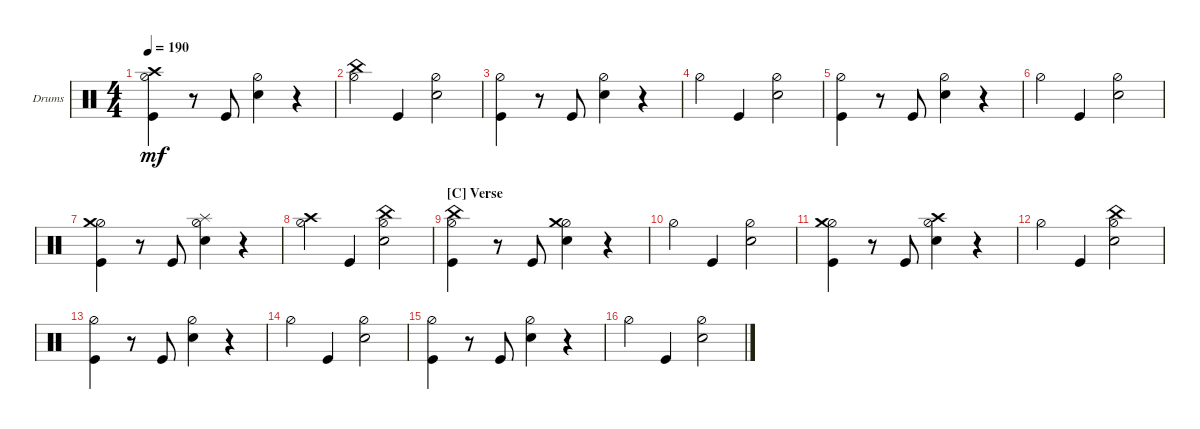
\defaultSystemsLayout 4
\bracketExtendMode groupsimilarinstruments
\firstSystemTrackNameOrientation horizontal
\otherSystemsTrackNameOrientation horizontal
\track ("Drumkit" "Drums") {instrument percussion}
\staff {score}
\articulation defaults
\ts (4 4)
\tempo 190
\clef neutral
\ks c
("Hi-Hat (half)" "Kick (hit)" "Crash high (hit)").4{dy mf} r.8 "Kick (hit)".8 ("Hi-Hat (half)" "Snare (hit) 2").4 r.4 |
("Hi-Hat (half)" "China (hit)").4 "Kick (hit)".4 ("Snare (hit) 2" "Hi-Hat (half)").2 |
("Hi-Hat (half)" "Kick (hit)").4 r.8 "Kick (hit)".8 ("Hi-Hat (half)" "Snare (hit) 2").4 r.4 |
"Hi-Hat (half)".4 "Kick (hit)".4 ("Snare (hit) 2" "Hi-Hat (half)").2 |
("Hi-Hat (half)" "Kick (hit)").4 r.8 "Kick (hit)".8 ("Hi-Hat (half)" "Snare (hit) 2").4 r.4 |
"Hi-Hat (half)".4 "Kick (hit)".4 ("Snare (hit) 2" "Hi-Hat (half)").2 |
("Hi-Hat (half)" "Kick (hit)" "Crash medium (hit)").4 r.8 "Kick (hit)".8 ("Hi-Hat (half)" "Snare (hit) 2" "Splash (hit)").4 r.4 |
("Hi-Hat (half)" "Crash high (hit)").4 "Kick (hit)".4 ("Snare (hit) 2" "Hi-Hat (half)" "China (hit)").2 |
\section ("C" "Verse")
("Hi-Hat (half)" "Kick (hit)" "China (hit)").4 r.8 "Kick (hit)".8 ("Hi-Hat (half)" "Snare (hit) 2" "Crash medium (hit)").4 r.4 |
"Hi-Hat (half)".4 "Kick (hit)".4 ("Snare (hit) 2" "Hi-Hat (half)").2 |
("Hi-Hat (half)" "Kick (hit)" "Crash medium (hit)").4 r.8 "Kick (hit)".8 ("Hi-Hat (half)" "Snare (hit) 2" "Crash high (hit)").4 r.4 |
"Hi-Hat (half)".4 "Kick (hit)".4 ("Snare (hit) 2" "Hi-Hat (half)" "China (hit)").2 |
("Hi-Hat (half)" "Kick (hit)").4 r.8 "Kick (hit)".8 ("Hi-Hat (half)" "Snare (hit) 2").4 r.4 |
"Hi-Hat (half)".4 "Kick (hit)".4 ("Snare (hit) 2" "Hi-Hat (half)").2 |
("Hi-Hat (half)" "Kick (hit)").4 r.8 "Kick (hit)".8 ("Hi-Hat (half)" "Snare (hit) 2").4 r.4 |
"Hi-Hat (half)".4 "Kick (hit)".4 ("Snare (hit) 2" "Hi-Hat (half)").2
